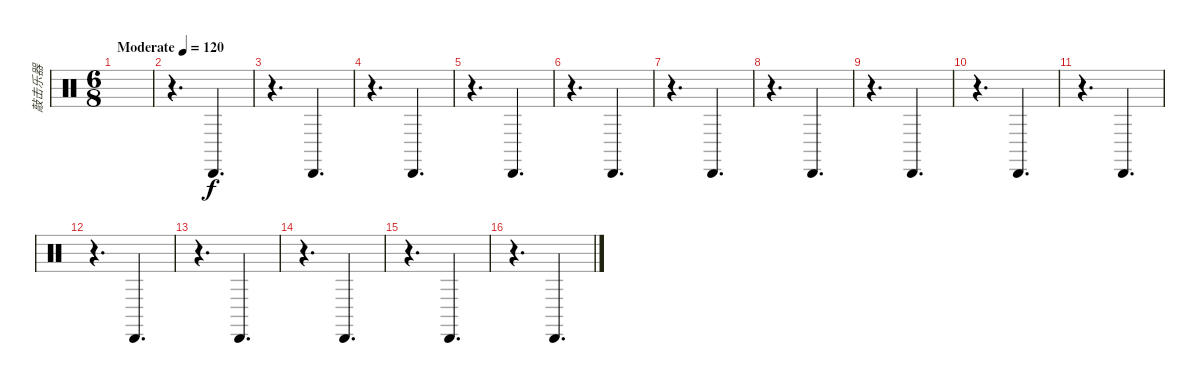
\track ("敲击乐器" "敲击乐器") {instrument percussion}
\staff {score}
\articulation defaults
\ts (6 8)
\tempo (120 "Moderate")
\clef neutral
\ks c
|
r.4{d} "Cabasa (hit)".4{d} |
r.4{d} "Cabasa (hit)".4{d} |
r.4{d} "Cabasa (hit)".4{d} |
r.4{d} "Cabasa (hit)".4{d} |
r.4{d} "Cabasa (hit)".4{d} |
r.4{d} "Cabasa (hit)".4{d} |
r.4{d} "Cabasa (hit)".4{d} |
r.4{d} "Cabasa (hit)".4{d} |
r.4{d} "Cabasa (hit)".4{d} |
r.4{d} "Cabasa (hit)".4{d} |
r.4{d} "Cabasa (hit)".4{d} |
r.4{d} "Cabasa (hit)".4{d} |
r.4{d} "Cabasa (hit)".4{d} |
r.4{d} "Cabasa (hit)".4{d} |
r.4{d} "Cabasa (hit)".4{d}
